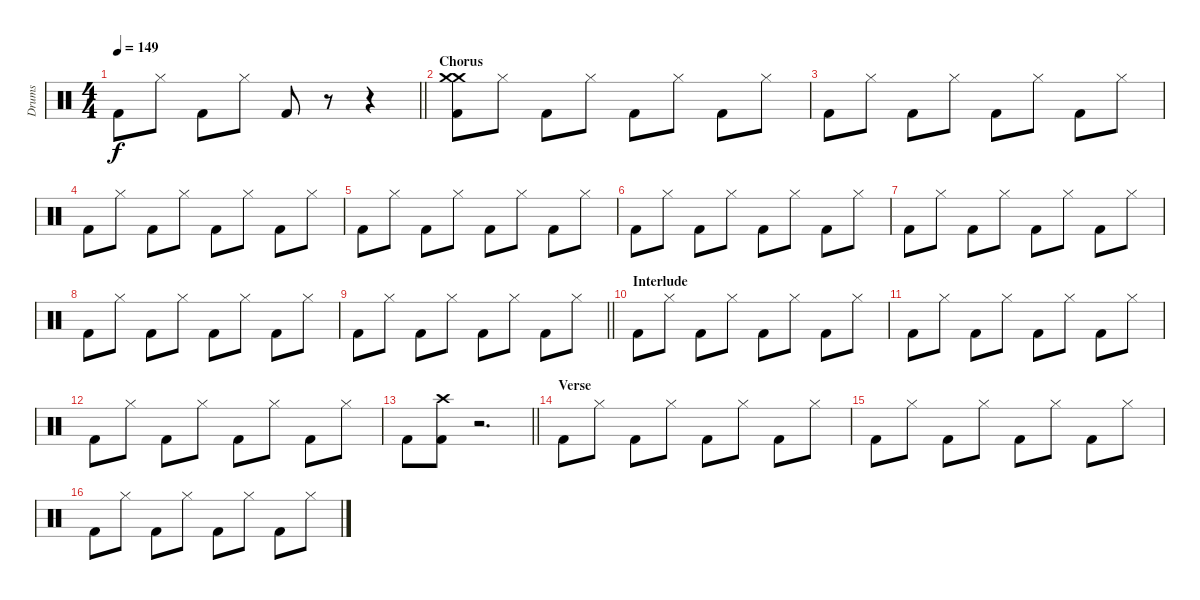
\track ("Drums" "Drums") {instrument percussion}
\staff {score}
\articulation defaults
\ts (4 4)
\tempo 149
\clef neutral
\barLineRight lightlight
\ks c "Kick (hit) 2".8{dy f} "Hi-Hat (closed)".8 "Kick (hit) 2".8 "Hi-Hat (closed)".8 "Kick (hit) 2".8
r.8 r.4 |
\section ("" "Chorus")
("Crash medium (hit)" "Crash medium (hit)" "Kick (hit) 2").8 "Hi-Hat (closed)".8 "Kick (hit) 2".8 "Hi-Hat (closed)".8 "Kick (hit) 2".8 "Hi-Hat (closed)".8 "Kick (hit) 2".8 "Hi-Hat (closed)".8 |
"Kick (hit) 2".8 "Hi-Hat (closed)".8 "Kick (hit) 2".8 "Hi-Hat (closed)".8 "Kick (hit) 2".8 "Hi-Hat (closed)".8 "Kick (hit) 2".8 "Hi-Hat (closed)".8 |
"Kick (hit) 2".8 "Hi-Hat (closed)".8 "Kick (hit) 2".8 "Hi-Hat (closed)".8 "Kick (hit) 2".8 "Hi-Hat (closed)".8 "Kick (hit) 2".8 "Hi-Hat (closed)".8 |
"Kick (hit) 2".8 "Hi-Hat (closed)".8 "Kick (hit) 2".8 "Hi-Hat (closed)".8 "Kick (hit) 2".8 "Hi-Hat (closed)".8 "Kick (hit) 2".8 "Hi-Hat (closed)".8 |
"Kick (hit) 2".8 "Hi-Hat (closed)".8 "Kick (hit) 2".8 "Hi-Hat (closed)".8 "Kick (hit) 2".8 "Hi-Hat (closed)".8 "Kick (hit) 2".8 "Hi-Hat (closed)".8 |
"Kick (hit) 2".8 "Hi-Hat (closed)".8 "Kick (hit) 2".8 "Hi-Hat (closed)".8 "Kick (hit) 2".8 "Hi-Hat (closed)".8 "Kick (hit) 2".8 "Hi-Hat (closed)".8 |
"Kick (hit) 2".8 "Hi-Hat (closed)".8 "Kick (hit) 2".8 "Hi-Hat (closed)".8 "Kick (hit) 2".8 "Hi-Hat (closed)".8 "Kick (hit) 2".8 "Hi-Hat (closed)".8 |
\barLineRight lightlight "Kick (hit) 2".8 "Hi-Hat (closed)".8 "Kick (hit) 2".8 "Hi-Hat (closed)".8 "Kick (hit) 2".8 "Hi-Hat (closed)".8 "Kick (hit) 2".8 "Hi-Hat (closed)".8
|
\section ("" "Interlude")
"Kick (hit) 2".8 "Hi-Hat (closed)".8 "Kick (hit) 2".8 "Hi-Hat (closed)".8 "Kick (hit) 2".8 "Hi-Hat (closed)".8 "Kick (hit) 2".8 "Hi-Hat (closed)".8 |
"Kick (hit) 2".8 "Hi-Hat (closed)".8 "Kick (hit) 2".8 "Hi-Hat (closed)".8 "Kick (hit) 2".8 "Hi-Hat (closed)".8 "Kick (hit) 2".8 "Hi-Hat (closed)".8 |
"Kick (hit) 2".8 "Hi-Hat (closed)".8 "Kick (hit) 2".8 "Hi-Hat (closed)".8 "Kick (hit) 2".8 "Hi-Hat (closed)".8 "Kick (hit) 2".8 "Hi-Hat (closed)".8 |
\barLineRight lightlight "Kick (hit) 2".8
("Crash high (hit)" "Kick (hit) 2").8 r.2{d} |
\section ("" "Verse")
"Kick (hit) 2".8 "Hi-Hat (closed)".8 "Kick (hit) 2".8 "Hi-Hat (closed)".8 "Kick (hit) 2".8 "Hi-Hat (closed)".8 "Kick (hit) 2".8 "Hi-Hat (closed)".8 |
"Kick (hit) 2".8 "Hi-Hat (closed)".8 "Kick (hit) 2".8 "Hi-Hat (closed)".8 "Kick (hit) 2".8 "Hi-Hat (closed)".8 "Kick (hit) 2".8 "Hi-Hat (closed)".8 |
"Kick (hit) 2".8 "Hi-Hat (closed)".8 "Kick (hit) 2".8 "Hi-Hat (closed)".8 "Kick (hit) 2".8 "Hi-Hat (closed)".8 "Kick (hit) 2".8 "Hi-Hat (closed)".8
